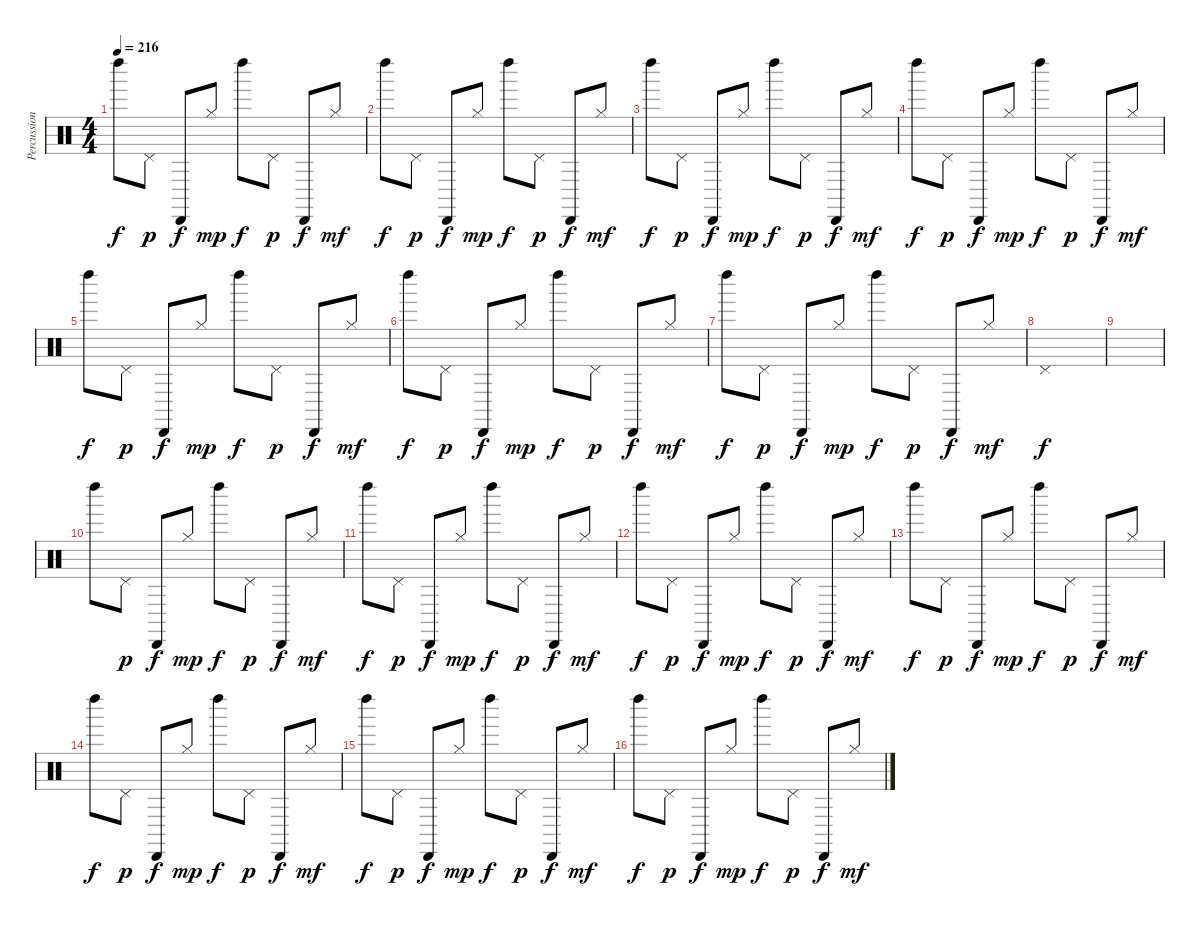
\track ("Percussions" "Percussion") {instrument percussion}
\staff {score}
\articulation defaults
\ts (4 4)
\tempo 216
\clef neutral
\ks c "Left Maraca (hit)".8{dy f} "Pedal Hi-Hat (hit)".8{dy p} "Cabasa (hit)".8{dy f} "Hi-Hat (closed)".8{dy mp} "Left Maraca (hit)".8{dy f} "Pedal Hi-Hat (hit)".8{dy p} "Cabasa (hit)".8{dy f} "Hi-Hat (closed)".8{dy mf}
|
"Left Maraca (hit)".8{dy f} "Pedal Hi-Hat (hit)".8{dy p} "Cabasa (hit)".8{dy f} "Hi-Hat (closed)".8{dy mp} "Left Maraca (hit)".8{dy f} "Pedal Hi-Hat (hit)".8{dy p} "Cabasa (hit)".8{dy f} "Hi-Hat (closed)".8{dy mf} |
"Left Maraca (hit)".8{dy f} "Pedal Hi-Hat (hit)".8{dy p} "Cabasa (hit)".8{dy f} "Hi-Hat (closed)".8{dy mp} "Left Maraca (hit)".8{dy f} "Pedal Hi-Hat (hit)".8{dy p} "Cabasa (hit)".8{dy f} "Hi-Hat (closed)".8{dy mf} |
"Left Maraca (hit)".8{dy f} "Pedal Hi-Hat (hit)".8{dy p} "Cabasa (hit)".8{dy f} "Hi-Hat (closed)".8{dy mp} "Left Maraca (hit)".8{dy f} "Pedal Hi-Hat (hit)".8{dy p} "Cabasa (hit)".8{dy f} "Hi-Hat (closed)".8{dy mf} |
"Left Maraca (hit)".8{dy f} "Pedal Hi-Hat (hit)".8{dy p} "Cabasa (hit)".8{dy f} "Hi-Hat (closed)".8{dy mp} "Left Maraca (hit)".8{dy f} "Pedal Hi-Hat (hit)".8{dy p} "Cabasa (hit)".8{dy f} "Hi-Hat (closed)".8{dy mf} |
"Left Maraca (hit)".8{dy f} "Pedal Hi-Hat (hit)".8{dy p} "Cabasa (hit)".8{dy f} "Hi-Hat (closed)".8{dy mp} "Left Maraca (hit)".8{dy f} "Pedal Hi-Hat (hit)".8{dy p} "Cabasa (hit)".8{dy f} "Hi-Hat (closed)".8{dy mf} |
"Left Maraca (hit)".8{dy f} "Pedal Hi-Hat (hit)".8{dy p} "Cabasa (hit)".8{dy f} "Hi-Hat (closed)".8{dy mp} "Left Maraca (hit)".8{dy f} "Pedal Hi-Hat (hit)".8{dy p} "Cabasa (hit)".8{dy f} "Hi-Hat (closed)".8{dy mf} |
"Pedal Hi-Hat (hit)".1{dy f} |
|
"Left Maraca (hit)".8 "Pedal Hi-Hat (hit)".8{dy p} "Cabasa (hit)".8{dy f} "Hi-Hat (closed)".8{dy mp} "Left Maraca (hit)".8{dy f} "Pedal Hi-Hat (hit)".8{dy p} "Cabasa (hit)".8{dy f} "Hi-Hat (closed)".8{dy mf} |
"Left Maraca (hit)".8{dy f} "Pedal Hi-Hat (hit)".8{dy p} "Cabasa (hit)".8{dy f} "Hi-Hat (closed)".8{dy mp} "Left Maraca (hit)".8{dy f} "Pedal Hi-Hat (hit)".8{dy p} "Cabasa (hit)".8{dy f} "Hi-Hat (closed)".8{dy mf} |
"Left Maraca (hit)".8{dy f} "Pedal Hi-Hat (hit)".8{dy p} "Cabasa (hit)".8{dy f} "Hi-Hat (closed)".8{dy mp} "Left Maraca (hit)".8{dy f} "Pedal Hi-Hat (hit)".8{dy p} "Cabasa (hit)".8{dy f} "Hi-Hat (closed)".8{dy mf} |
"Left Maraca (hit)".8{dy f} "Pedal Hi-Hat (hit)".8{dy p} "Cabasa (hit)".8{dy f} "Hi-Hat (closed)".8{dy mp} "Left Maraca (hit)".8{dy f} "Pedal Hi-Hat (hit)".8{dy p} "Cabasa (hit)".8{dy f} "Hi-Hat (closed)".8{dy mf} |
"Left Maraca (hit)".8{dy f} "Pedal Hi-Hat (hit)".8{dy p} "Cabasa (hit)".8{dy f} "Hi-Hat (closed)".8{dy mp} "Left Maraca (hit)".8{dy f} "Pedal Hi-Hat (hit)".8{dy p} "Cabasa (hit)".8{dy f} "Hi-Hat (closed)".8{dy mf} |
"Left Maraca (hit)".8{dy f} "Pedal Hi-Hat (hit)".8{dy p} "Cabasa (hit)".8{dy f} "Hi-Hat (closed)".8{dy mp} "Left Maraca (hit)".8{dy f} "Pedal Hi-Hat (hit)".8{dy p} "Cabasa (hit)".8{dy f} "Hi-Hat (closed)".8{dy mf} |
"Left Maraca (hit)".8{dy f} "Pedal Hi-Hat (hit)".8{dy p} "Cabasa (hit)".8{dy f} "Hi-Hat (closed)".8{dy mp} "Left Maraca (hit)".8{dy f} "Pedal Hi-Hat (hit)".8{dy p} "Cabasa (hit)".8{dy f} "Hi-Hat (closed)".8{dy mf}
